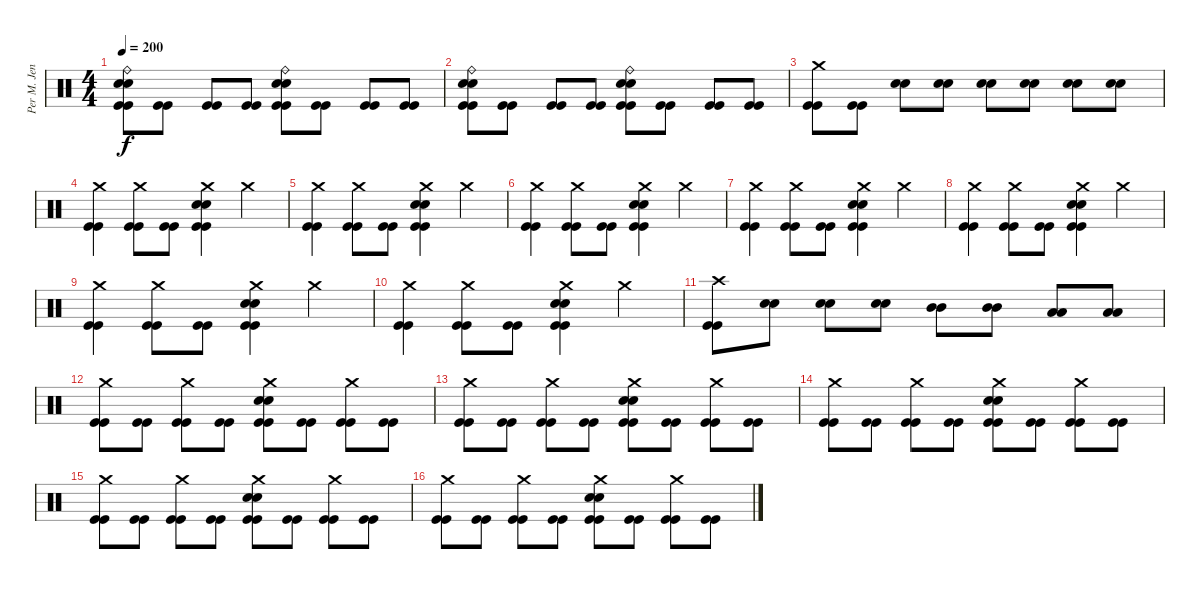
\track ("Per M. Jensen" "Per M. Jen") {instrument percussion}
\staff {score}
\articulation defaults
\ts (4 4)
\tempo 200
\clef neutral
\ks c
("Ride (bell)" "Snare (hit) 2" "Snare (hit) 2" "Kick (hit)" "Kick (hit)").8{dy f} ("Kick (hit)" "Kick (hit)").8 ("Kick (hit)" "Kick (hit)").8 ("Kick (hit)" "Kick (hit)").8 ("Ride (bell)" "Snare (hit) 2" "Snare (hit) 2" "Kick (hit)" "Kick (hit)").8 ("Kick (hit)" "Kick (hit)").8 ("Kick (hit)" "Kick (hit)").8 ("Kick (hit)" "Kick (hit)").8 |
("Ride (bell)" "Snare (hit) 2" "Snare (hit) 2" "Kick (hit)" "Kick (hit)").8 ("Kick (hit)" "Kick (hit)").8 ("Kick (hit)" "Kick (hit)").8 ("Kick (hit)" "Kick (hit)").8 ("Ride (bell)" "Snare (hit) 2" "Snare (hit) 2" "Kick (hit)" "Kick (hit)").8 ("Kick (hit)" "Kick (hit)").8 ("Kick (hit)" "Kick (hit)").8 ("Kick (hit)" "Kick (hit)").8 |
("Crash medium (hit)" "Kick (hit)" "Kick (hit)").8 ("Kick (hit)" "Kick (hit)").8 ("Snare (hit) 2" "Snare (hit) 2").8 ("Snare (hit) 2" "Snare (hit) 2").8 ("Snare (hit) 2" "Snare (hit) 2").8 ("Snare (hit) 2" "Snare (hit) 2").8 ("Snare (hit) 2" "Snare (hit) 2").8 ("Snare (hit) 2" "Snare (hit) 2").8 |
("Crash medium (hit)" "Kick (hit)" "Kick (hit)").4 ("Crash medium (hit)" "Kick (hit)" "Kick (hit)").8 ("Kick (hit)" "Kick (hit)").8 ("Crash medium (hit)" "Snare (hit) 2" "Snare (hit) 2" "Kick (hit)" "Kick (hit)").4 "Crash medium (hit)".4 |
("Crash medium (hit)" "Kick (hit)" "Kick (hit)").4 ("Crash medium (hit)" "Kick (hit)" "Kick (hit)").8 ("Kick (hit)" "Kick (hit)").8 ("Crash medium (hit)" "Snare (hit) 2" "Snare (hit) 2" "Kick (hit)" "Kick (hit)").4 "Crash medium (hit)".4 |
("Crash medium (hit)" "Kick (hit)" "Kick (hit)").4 ("Crash medium (hit)" "Kick (hit)" "Kick (hit)").8 ("Kick (hit)" "Kick (hit)").8 ("Crash medium (hit)" "Snare (hit) 2" "Snare (hit) 2" "Kick (hit)" "Kick (hit)").4 "Crash medium (hit)".4 |
("Crash medium (hit)" "Kick (hit)" "Kick (hit)").4 ("Crash medium (hit)" "Kick (hit)" "Kick (hit)").8 ("Kick (hit)" "Kick (hit)").8 ("Crash medium (hit)" "Snare (hit) 2" "Snare (hit) 2" "Kick (hit)" "Kick (hit)").4 "Crash medium (hit)".4 |
("Crash medium (hit)" "Kick (hit)" "Kick (hit)").4 ("Crash medium (hit)" "Kick (hit)" "Kick (hit)").8 ("Kick (hit)" "Kick (hit)").8 ("Crash medium (hit)" "Snare (hit) 2" "Snare (hit) 2" "Kick (hit)" "Kick (hit)").4 "Crash medium (hit)".4 |
("Crash medium (hit)" "Kick (hit)" "Kick (hit)").4 ("Crash medium (hit)" "Kick (hit)" "Kick (hit)").8 ("Kick (hit)" "Kick (hit)").8 ("Crash medium (hit)" "Snare (hit) 2" "Snare (hit) 2" "Kick (hit)" "Kick (hit)").4 "Crash medium (hit)".4 |
("Crash medium (hit)" "Kick (hit)" "Kick (hit)").4 ("Crash medium (hit)" "Kick (hit)" "Kick (hit)").8 ("Kick (hit)" "Kick (hit)").8 ("Crash medium (hit)" "Snare (hit) 2" "Snare (hit) 2" "Kick (hit)" "Kick (hit)").4 "Crash medium (hit)".4 |
("Crash high (hit)" "Kick (hit)" "Kick (hit)").8 ("Snare (hit) 2" "Snare (hit) 2").8 ("Snare (hit) 2" "Snare (hit) 2").8 ("Snare (hit) 2" "Snare (hit) 2").8 ("Mid Tom (hit)" "Mid Tom (hit)").8 ("Mid Tom (hit)" "Mid Tom (hit)").8 ("Low Tom (hit)" "Low Tom (hit)").8 ("Low Tom (hit)" "Low Tom (hit)").8 |
("Crash medium (hit)" "Kick (hit)" "Kick (hit)").8 ("Kick (hit)" "Kick (hit)").8 ("Crash medium (hit)" "Kick (hit)" "Kick (hit)").8 ("Kick (hit)" "Kick (hit)").8 ("Crash medium (hit)" "Snare (hit) 2" "Snare (hit) 2" "Kick (hit)" "Kick (hit)").8 ("Kick (hit)" "Kick (hit)").8 ("Crash medium (hit)" "Kick (hit)" "Kick (hit)").8 ("Kick (hit)" "Kick (hit)").8 |
("Crash medium (hit)" "Kick (hit)" "Kick (hit)").8 ("Kick (hit)" "Kick (hit)").8 ("Crash medium (hit)" "Kick (hit)" "Kick (hit)").8 ("Kick (hit)" "Kick (hit)").8 ("Crash medium (hit)" "Snare (hit) 2" "Snare (hit) 2" "Kick (hit)" "Kick (hit)").8 ("Kick (hit)" "Kick (hit)").8 ("Crash medium (hit)" "Kick (hit)" "Kick (hit)").8 ("Kick (hit)" "Kick (hit)").8 |
("Crash medium (hit)" "Kick (hit)" "Kick (hit)").8 ("Kick (hit)" "Kick (hit)").8 ("Crash medium (hit)" "Kick (hit)" "Kick (hit)").8 ("Kick (hit)" "Kick (hit)").8 ("Crash medium (hit)" "Snare (hit) 2" "Snare (hit) 2" "Kick (hit)" "Kick (hit)").8 ("Kick (hit)" "Kick (hit)").8 ("Crash medium (hit)" "Kick (hit)" "Kick (hit)").8 ("Kick (hit)" "Kick (hit)").8 |
("Crash medium (hit)" "Kick (hit)" "Kick (hit)").8 ("Kick (hit)" "Kick (hit)").8 ("Crash medium (hit)" "Kick (hit)" "Kick (hit)").8 ("Kick (hit)" "Kick (hit)").8 ("Crash medium (hit)" "Snare (hit) 2" "Snare (hit) 2" "Kick (hit)" "Kick (hit)").8 ("Kick (hit)" "Kick (hit)").8 ("Crash medium (hit)" "Kick (hit)" "Kick (hit)").8 ("Kick (hit)" "Kick (hit)").8 |
("Crash medium (hit)" "Kick (hit)" "Kick (hit)").8 ("Kick (hit)" "Kick (hit)").8 ("Crash medium (hit)" "Kick (hit)" "Kick (hit)").8 ("Kick (hit)" "Kick (hit)").8 ("Crash medium (hit)" "Snare (hit) 2" "Snare (hit) 2" "Kick (hit)" "Kick (hit)").8 ("Kick (hit)" "Kick (hit)").8 ("Crash medium (hit)" "Kick (hit)" "Kick (hit)").8 ("Kick (hit)" "Kick (hit)").8
